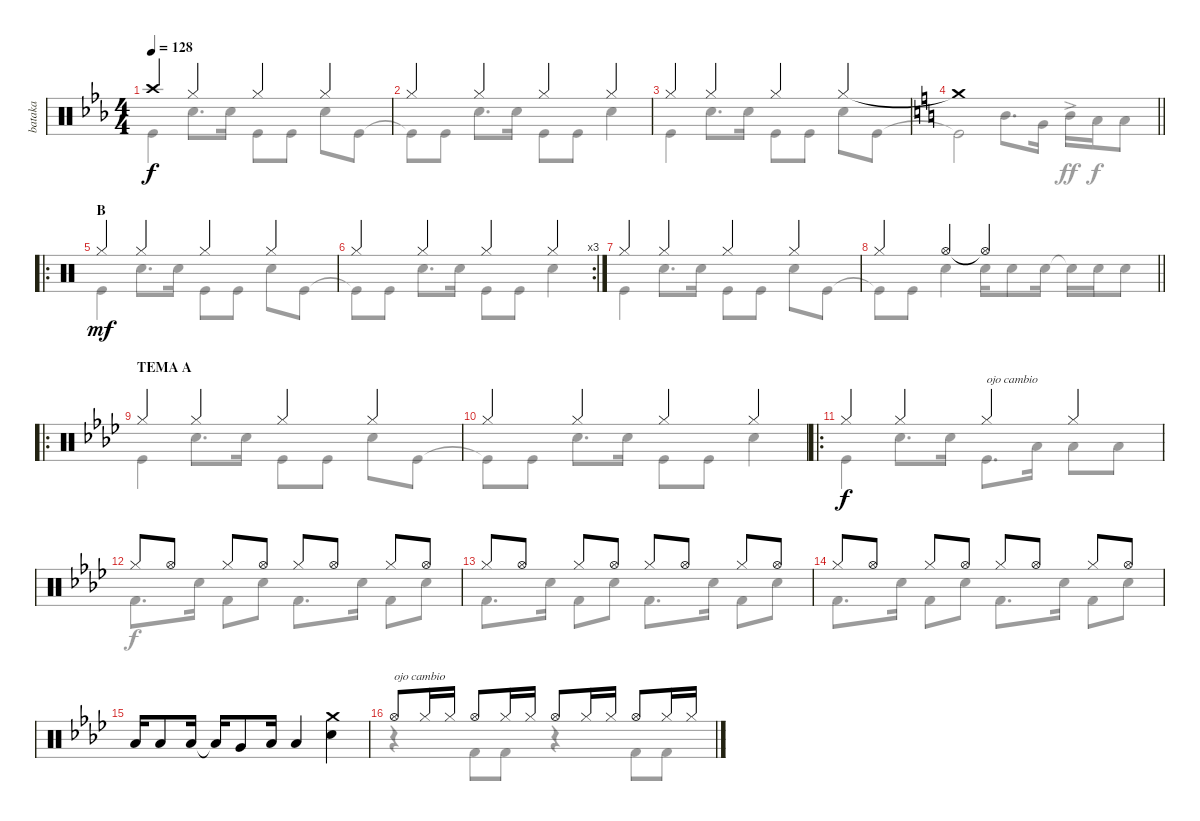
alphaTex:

\track ("bataka" "bataka") {mute instrument percussion}
\staff {score}
\articulation defaults
\voice
\ts (4 4)
\tempo 128
\clef neutral
\ks eb "Crash high (hit)".4{dy f} "Hi-Hat (closed)".4 "Hi-Hat (closed)".4 "Hi-Hat (closed)".4
|
"Hi-Hat (closed)".4 "Hi-Hat (closed)".4 "Hi-Hat (closed)".4 "Hi-Hat (closed)".4 |
"Hi-Hat (closed)".4 "Hi-Hat (closed)".4 "Hi-Hat (closed)".4 "Hi-Hat (closed)".4 |
\barLineRight lightlight
\ks aminor "Crash medium (hit)"{t}.1
|
\ro
\section ("" "B")
"Hi-Hat (closed)".4{dy mf} "Hi-Hat (closed)".4 "Hi-Hat (closed)".4 "Hi-Hat (closed)".4 |
\rc 3 "Hi-Hat (closed)".4 "Hi-Hat (closed)".4 "Hi-Hat (closed)".4 "Hi-Hat (closed)".4
|
"Hi-Hat (closed)".4 "Hi-Hat (closed)".4 "Hi-Hat (closed)".4 "Hi-Hat (closed)".4 |
\barLineRight lightlight "Hi-Hat (closed)".4 "Hi-Hat (open)".4 "Hi-Hat (open)"{t}.2
|
\ro
\section ("" "TEMA A")
\ks fminor "Hi-Hat (closed)".4 "Hi-Hat (closed)".4 "Hi-Hat (closed)".4 "Hi-Hat (closed)".4
|
"Hi-Hat (closed)".4 "Hi-Hat (closed)".4 "Hi-Hat (closed)".4 "Hi-Hat (closed)".4 |
\ro "Hi-Hat (closed)".4{dy f} "Hi-Hat (closed)".4 "Hi-Hat (closed)".4{txt "ojo cambio"} "Hi-Hat (closed)".4
|
"Hi-Hat (closed)".8 "Hi-Hat (open)".8 "Hi-Hat (closed)".8 "Hi-Hat (open)".8 "Hi-Hat (closed)".8 "Hi-Hat (open)".8 "Hi-Hat (closed)".8 "Hi-Hat (open)".8 |
"Hi-Hat (closed)".8 "Hi-Hat (open)".8 "Hi-Hat (closed)".8 "Hi-Hat (open)".8 "Hi-Hat (closed)".8 "Hi-Hat (open)".8 "Hi-Hat (closed)".8 "Hi-Hat (open)".8 |
"Hi-Hat (closed)".8 "Hi-Hat (open)".8 "Hi-Hat (closed)".8 "Hi-Hat (open)".8 "Hi-Hat (closed)".8 "Hi-Hat (open)".8 "Hi-Hat (closed)".8 "Hi-Hat (open)".8 |
"Low Tom (hit)".16 "Low Tom (hit)".8 "Low Tom (hit)".16 "Low Tom (hit)"{t}.16 "Very Low Tom (hit)".8 "Low Floor Tom (hit)".16 "Low Floor Tom (hit)".4 ("Snare (hit) 2" "Crash medium (hit)").4 |
"Hi-Hat (open)".8{txt "ojo cambio"} "Hi-Hat (closed)".16 "Hi-Hat (closed)".16 "Hi-Hat (open)".8 "Hi-Hat (closed)".16 "Hi-Hat (closed)".16 "Hi-Hat (open)".8 "Hi-Hat (closed)".16 "Hi-Hat (closed)".16 "Hi-Hat (open)".8 "Hi-Hat (closed)".16 "Hi-Hat (closed)".16
\voice
\clef neutral
\ottava regular
\simile none
\ks eb "Kick (hit)".4{dy f} "Snare (hit) 2".8{d} "Snare (hit) 2".16 "Kick (hit)".8 "Kick (hit)".8 "Snare (hit) 2".8 "Kick (hit)".8
|
"Kick (hit)"{t}.8 "Kick (hit)".8 "Snare (hit) 2".8{d} "Snare (hit) 2".16 "Kick (hit)".8 "Kick (hit)".8 "Snare (hit) 2".4 |
"Kick (hit)".4 "Snare (hit) 2".8{d} "Snare (hit) 2".16 "Kick (hit)".8 "Kick (hit)".8 "Snare (hit) 2".8 "Kick (hit)".8 |
\barLineRight lightlight
\ks aminor "Kick (hit)"{t}.2 "Mid Tom (hit)".8{d} "Very Low Tom (hit)".16 "Mid Tom (hit)"{ac}.16{dy ff} "Low Floor Tom (hit)".16{dy f} "Low Floor Tom (hit)".8
|
"Kick (hit)".4{dy mf} "Snare (hit) 2".8{d} "Snare (hit) 2".16 "Kick (hit)".8 "Kick (hit)".8 "Snare (hit) 2".8 "Kick (hit)".8 |
"Kick (hit)"{t}.8 "Kick (hit)".8 "Snare (hit) 2".8{d} "Snare (hit) 2".16 "Kick (hit)".8 "Kick (hit)".8 "Snare (hit) 2".4 |
"Kick (hit)".4 "Snare (hit) 2".8{d} "Snare (hit) 2".16 "Kick (hit)".8 "Kick (hit)".8 "Snare (hit) 2".8 "Kick (hit)".8 |
\barLineRight lightlight "Kick (hit)"{t}.8 "Kick (hit)".8 "Snare (hit) 2".4 "Snare (hit) 2".16 "Snare (hit) 2".8 "Snare (hit) 2".16 "Snare (hit) 2"{t}.16 "Snare (hit) 2".16 "Snare (hit) 2".8
|
\ks fminor "Kick (hit)".4 "Snare (hit) 2".8{d} "Snare (hit) 2".16 "Kick (hit)".8 "Kick (hit)".8 "Snare (hit) 2".8 "Kick (hit)".8
|
"Kick (hit)"{t}.8 "Kick (hit)".8 "Snare (hit) 2".8{d} "Snare (hit) 2".16 "Kick (hit)".8 "Kick (hit)".8 "Snare (hit) 2".4 |
"Kick (hit)".4 "Snare (hit) 2".8{d} "Snare (hit) 2".16 "Kick (hit)".8{d} "Low Tom (hit)".16 "Low Floor Tom (hit)".8 "Low Floor Tom (hit)".8 |
"Kick (hit) 2".8{d dy f} "Snare (hit) 2".16 "Kick (hit) 2".8 "Snare (hit) 2".8 "Kick (hit) 2".8{d} "Snare (hit) 2".16 "Kick (hit) 2".8 "Snare (hit) 2".8 |
"Kick (hit) 2".8{d} "Snare (hit) 2".16 "Kick (hit) 2".8 "Snare (hit) 2".8 "Kick (hit) 2".8{d} "Snare (hit) 2".16 "Kick (hit) 2".8 "Snare (hit) 2".8 |
"Kick (hit) 2".8{d} "Snare (hit) 2".16 "Kick (hit) 2".8 "Snare (hit) 2".8 "Kick (hit) 2".8{d} "Snare (hit) 2".16 "Kick (hit) 2".8 "Snare (hit) 2".8 |
|
r.4 "Kick (hit) 2".8 "Kick (hit) 2".8 r.4 "Kick (hit) 2".8 "Kick (hit) 2".8
